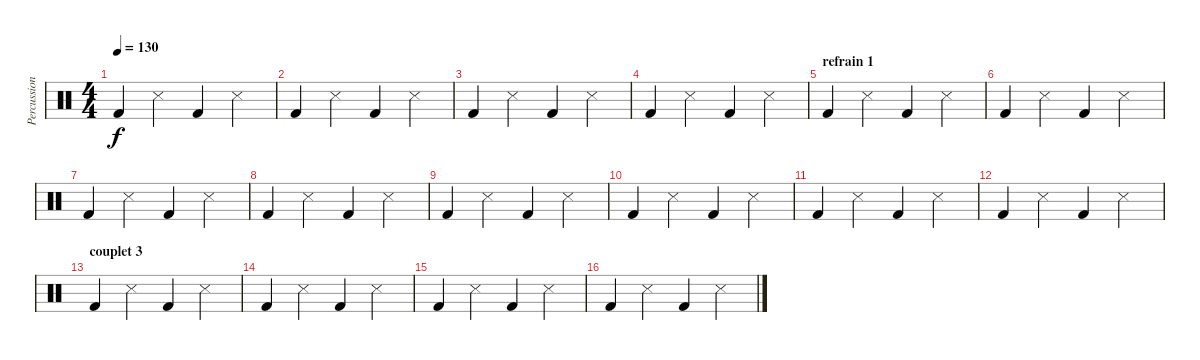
\track ("Percussions" "Percussion") {instrument percussion}
\staff {score}
\articulation defaults
\ts (4 4)
\tempo 130
\clef neutral
\ks c "Kick (hit) 2".4{dy f} "Snare (side stick) 3".4 "Kick (hit) 2".4 "Snare (side stick) 3".4
|
"Kick (hit) 2".4 "Snare (side stick) 3".4 "Kick (hit) 2".4 "Snare (side stick) 3".4 |
"Kick (hit) 2".4 "Snare (side stick) 3".4 "Kick (hit) 2".4 "Snare (side stick) 3".4 |
"Kick (hit) 2".4 "Snare (side stick) 3".4 "Kick (hit) 2".4 "Snare (side stick) 3".4 |
\section ("" "refrain 1")
"Kick (hit) 2".4 "Snare (side stick) 3".4 "Kick (hit) 2".4 "Snare (side stick) 3".4 |
"Kick (hit) 2".4 "Snare (side stick) 3".4 "Kick (hit) 2".4 "Snare (side stick) 3".4 |
"Kick (hit) 2".4 "Snare (side stick) 3".4 "Kick (hit) 2".4 "Snare (side stick) 3".4 |
"Kick (hit) 2".4 "Snare (side stick) 3".4 "Kick (hit) 2".4 "Snare (side stick) 3".4 |
"Kick (hit) 2".4 "Snare (side stick) 3".4 "Kick (hit) 2".4 "Snare (side stick) 3".4 |
"Kick (hit) 2".4 "Snare (side stick) 3".4 "Kick (hit) 2".4 "Snare (side stick) 3".4 |
"Kick (hit) 2".4 "Snare (side stick) 3".4 "Kick (hit) 2".4 "Snare (side stick) 3".4 |
"Kick (hit) 2".4 "Snare (side stick) 3".4 "Kick (hit) 2".4 "Snare (side stick) 3".4 |
\section ("" "couplet 3")
"Kick (hit) 2".4 "Snare (side stick) 3".4 "Kick (hit) 2".4 "Snare (side stick) 3".4 |
"Kick (hit) 2".4 "Snare (side stick) 3".4 "Kick (hit) 2".4 "Snare (side stick) 3".4 |
"Kick (hit) 2".4 "Snare (side stick) 3".4 "Kick (hit) 2".4 "Snare (side stick) 3".4 |
"Kick (hit) 2".4 "Snare (side stick) 3".4 "Kick (hit) 2".4 "Snare (side stick) 3".4
